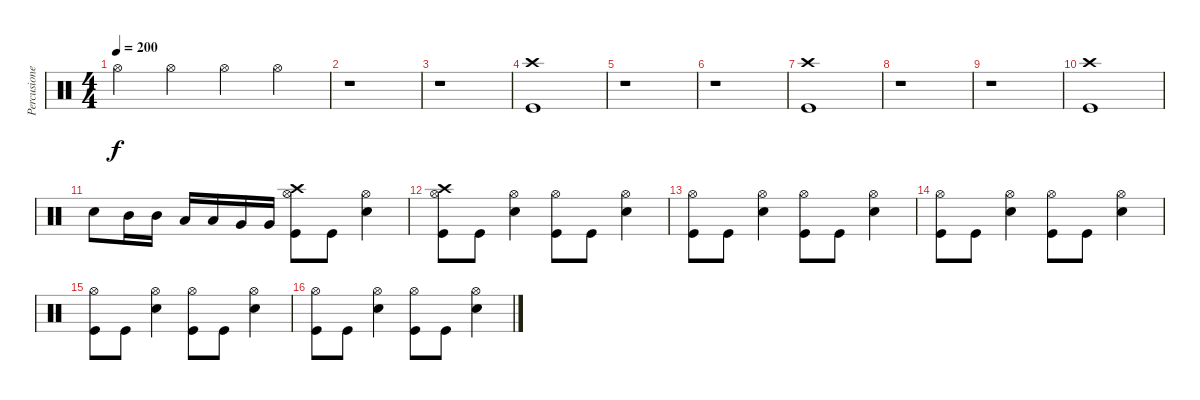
\track ("Percusiones" "Percusione") {instrument percussion}
\staff {score}
\articulation defaults
\ts (4 4)
\tempo 200
\clef neutral
\ks c "Hi-Hat (open)".4{dy f} "Hi-Hat (open)".4 "Hi-Hat (open)".4 "Hi-Hat (open)".4
|
r.1 |
r.1 |
("Crash high (hit)" "Kick (hit)").1 |
r.1 |
r.1 |
("Crash high (hit)" "Kick (hit)").1 |
r.1 |
r.1 |
("Crash high (hit)" "Kick (hit)").1 |
"Electric Snare (hit)".8 "Mid Tom (hit)".16 "Mid Tom (hit)".16 "Low Tom (hit)".16 "Low Tom (hit)".16 "Very Low Tom (hit)".16 "Very Low Tom (hit)".16 ("Hi-Hat (open)" "Crash high (hit)" "Kick (hit)").8 "Kick (hit)".8 ("Hi-Hat (open)" "Electric Snare (hit)").4 |
("Crash high (hit)" "Hi-Hat (open)" "Kick (hit)").8 "Kick (hit)".8 ("Hi-Hat (open)" "Electric Snare (hit)").4 ("Hi-Hat (open)" "Kick (hit)").8 "Kick (hit)".8 ("Hi-Hat (open)" "Electric Snare (hit)").4 |
("Kick (hit)" "Hi-Hat (open)").8 "Kick (hit)".8 ("Electric Snare (hit)" "Hi-Hat (open)").4 ("Hi-Hat (open)" "Kick (hit)").8 "Kick (hit)".8 ("Electric Snare (hit)" "Hi-Hat (open)").4 |
("Kick (hit)" "Hi-Hat (open)").8 "Kick (hit)".8 ("Electric Snare (hit)" "Hi-Hat (open)").4 ("Hi-Hat (open)" "Kick (hit)").8 "Kick (hit)".8 ("Electric Snare (hit)" "Hi-Hat (open)").4 |
("Kick (hit)" "Hi-Hat (open)").8 "Kick (hit)".8 ("Electric Snare (hit)" "Hi-Hat (open)").4 ("Hi-Hat (open)" "Kick (hit)").8 "Kick (hit)".8 ("Electric Snare (hit)" "Hi-Hat (open)").4 |
("Kick (hit)" "Hi-Hat (open)").8 "Kick (hit)".8 ("Electric Snare (hit)" "Hi-Hat (open)").4 ("Hi-Hat (open)" "Kick (hit)").8 "Kick (hit)".8 ("Electric Snare (hit)" "Hi-Hat (open)").4
